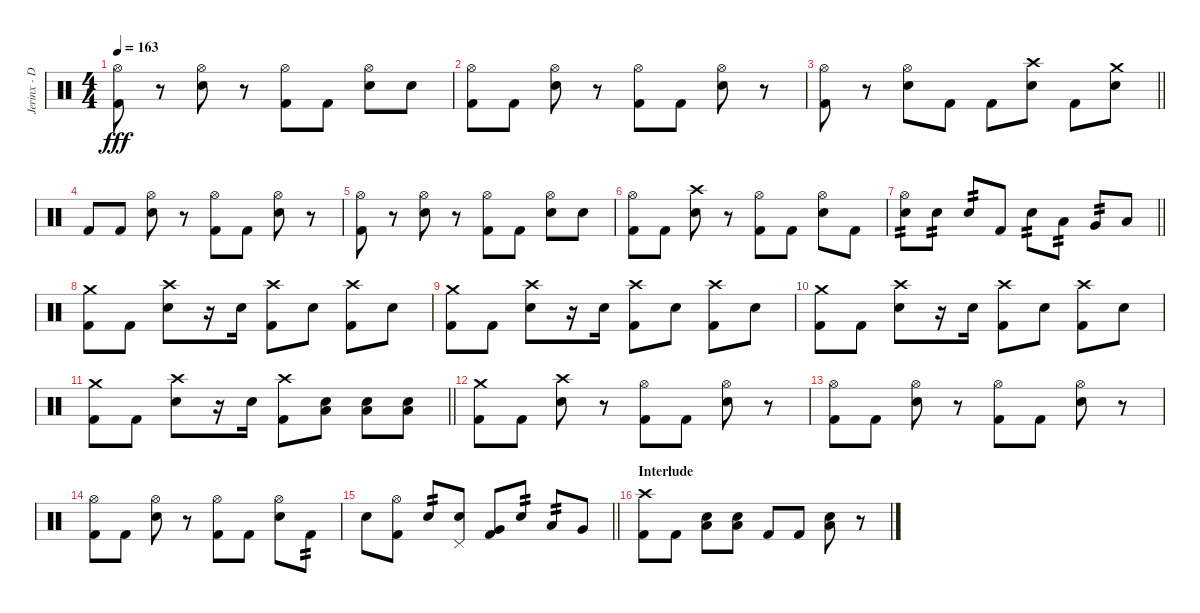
\track ("Jerinx - Drum" "Jerinx - D") {instrument percussion}
\staff {score}
\articulation defaults
\ts (4 4)
\tempo 163
\clef neutral
\ks c
("Hi-Hat (open)" "Kick (hit) 2").8{dy fff} r.8 ("Hi-Hat (open)" "Snare (hit) 2").8 r.8 ("Hi-Hat (open)" "Kick (hit) 2").8 "Kick (hit) 2".8 ("Hi-Hat (open)" "Snare (hit) 2").8 "Snare (hit) 2".8 |
("Hi-Hat (open)" "Kick (hit) 2").8 "Kick (hit) 2".8 ("Hi-Hat (open)" "Snare (hit) 2").8 r.8 ("Hi-Hat (open)" "Kick (hit) 2").8 "Kick (hit) 2".8 ("Hi-Hat (open)" "Snare (hit) 2").8 r.8 |
\barLineRight lightlight
("Hi-Hat (open)" "Kick (hit) 2").8 r.8 ("Hi-Hat (open)" "Snare (hit) 2").8 "Kick (hit) 2".8 "Kick (hit) 2".8 ("Snare (hit) 2" "Crash high (hit)").8 "Kick (hit) 2".8 ("Snare (hit) 2" "Crash medium (hit)").8 |
"Kick (hit) 2".8 "Kick (hit) 2".8 ("Hi-Hat (open)" "Snare (hit) 2").8 r.8 ("Hi-Hat (open)" "Kick (hit) 2").8 "Kick (hit) 2".8 ("Hi-Hat (open)" "Snare (hit) 2").8 r.8 |
("Hi-Hat (open)" "Kick (hit) 2").8 r.8 ("Hi-Hat (open)" "Snare (hit) 2").8 r.8 ("Hi-Hat (open)" "Kick (hit) 2").8 "Kick (hit) 2".8 ("Hi-Hat (open)" "Snare (hit) 2").8 "Snare (hit) 2".8 |
("Hi-Hat (open)" "Kick (hit) 2").8 "Kick (hit) 2".8 ("Snare (hit) 2" "Crash high (hit)").8 r.8 ("Hi-Hat (open)" "Kick (hit) 2").8 "Kick (hit) 2".8 ("Hi-Hat (open)" "Snare (hit) 2").8 "Kick (hit) 2".8 |
\barLineRight lightlight
("Hi-Hat (open)" "Snare (hit) 2").8{tp 2} "Snare (hit) 2".8{tp 2} "Snare (hit) 2".8{tp 2} "Kick (hit) 2".8 "Snare (hit) 2".8{tp 2} "Low Tom (hit)".8{tp 2} "Very Low Tom (hit)".8{tp 2} "Low Floor Tom (hit)".8 |
("Kick (hit) 2" "Crash medium (hit)").8 "Kick (hit) 2".8 ("Snare (hit) 2" "Crash high (hit)").8 r.16 "Snare (hit) 2".16 ("Kick (hit) 2" "Crash high (hit)").8 "Snare (hit) 2".8 ("Kick (hit) 2" "Crash high (hit)").8 "Snare (hit) 2".8 |
("Kick (hit) 2" "Crash medium (hit)").8 "Kick (hit) 2".8 ("Snare (hit) 2" "Crash high (hit)").8 r.16 "Snare (hit) 2".16 ("Kick (hit) 2" "Crash high (hit)").8 "Snare (hit) 2".8 ("Kick (hit) 2" "Crash high (hit)").8 "Snare (hit) 2".8 |
("Kick (hit) 2" "Crash medium (hit)").8 "Kick (hit) 2".8 ("Snare (hit) 2" "Crash high (hit)").8 r.16 "Snare (hit) 2".16 ("Kick (hit) 2" "Crash high (hit)").8 "Snare (hit) 2".8 ("Kick (hit) 2" "Crash high (hit)").8 "Snare (hit) 2".8 |
\barLineRight lightlight
("Kick (hit) 2" "Crash medium (hit)").8 "Kick (hit) 2".8 ("Snare (hit) 2" "Crash high (hit)").8 r.16 "Snare (hit) 2".16 ("Kick (hit) 2" "Crash high (hit)").8 ("Snare (hit) 2" "Low Floor Tom (hit)").8 ("Snare (hit) 2" "Low Floor Tom (hit)").8 ("Snare (hit) 2" "Low Floor Tom (hit)").8 |
("Kick (hit) 2" "Crash medium (hit)").8 "Kick (hit) 2".8 ("Snare (hit) 2" "Crash high (hit)").8 r.8 ("Hi-Hat (open)" "Kick (hit) 2").8 "Kick (hit) 2".8 ("Hi-Hat (open)" "Snare (hit) 2").8 r.8 |
("Hi-Hat (open)" "Kick (hit) 2").8 "Kick (hit) 2".8 ("Hi-Hat (open)" "Snare (hit) 2").8 r.8 ("Hi-Hat (open)" "Kick (hit) 2").8 "Kick (hit) 2".8 ("Hi-Hat (open)" "Snare (hit) 2").8 r.8 |
("Hi-Hat (open)" "Kick (hit) 2").8 "Kick (hit) 2".8 ("Hi-Hat (open)" "Snare (hit) 2").8 r.8 ("Hi-Hat (open)" "Kick (hit) 2").8 "Kick (hit) 2".8 ("Hi-Hat (open)" "Snare (hit) 2").8 "Kick (hit) 2".8{tp 2} |
\barLineRight lightlight "Snare (hit) 2".8
("Hi-Hat (open)" "Kick (hit) 2").8 "Snare (hit) 2".8{tp 2} ("Pedal Hi-Hat (hit)" "Snare (hit) 2").8 ("Kick (hit) 2" "Very Low Tom (hit)").8 "Snare (hit) 2".8{tp 2} "Low Tom (hit)".8{tp 2} "Very Low Tom (hit)".8 |
\section ("" "Interlude")
("Kick (hit) 2" "Crash high (hit)").8 "Kick (hit) 2".8 ("Snare (hit) 2" "Low Floor Tom (hit)").8 ("Snare (hit) 2" "Low Floor Tom (hit)").8 "Kick (hit) 2".8 "Kick (hit) 2".8 ("Snare (hit) 2" "Low Floor Tom (hit)").8 r.8
